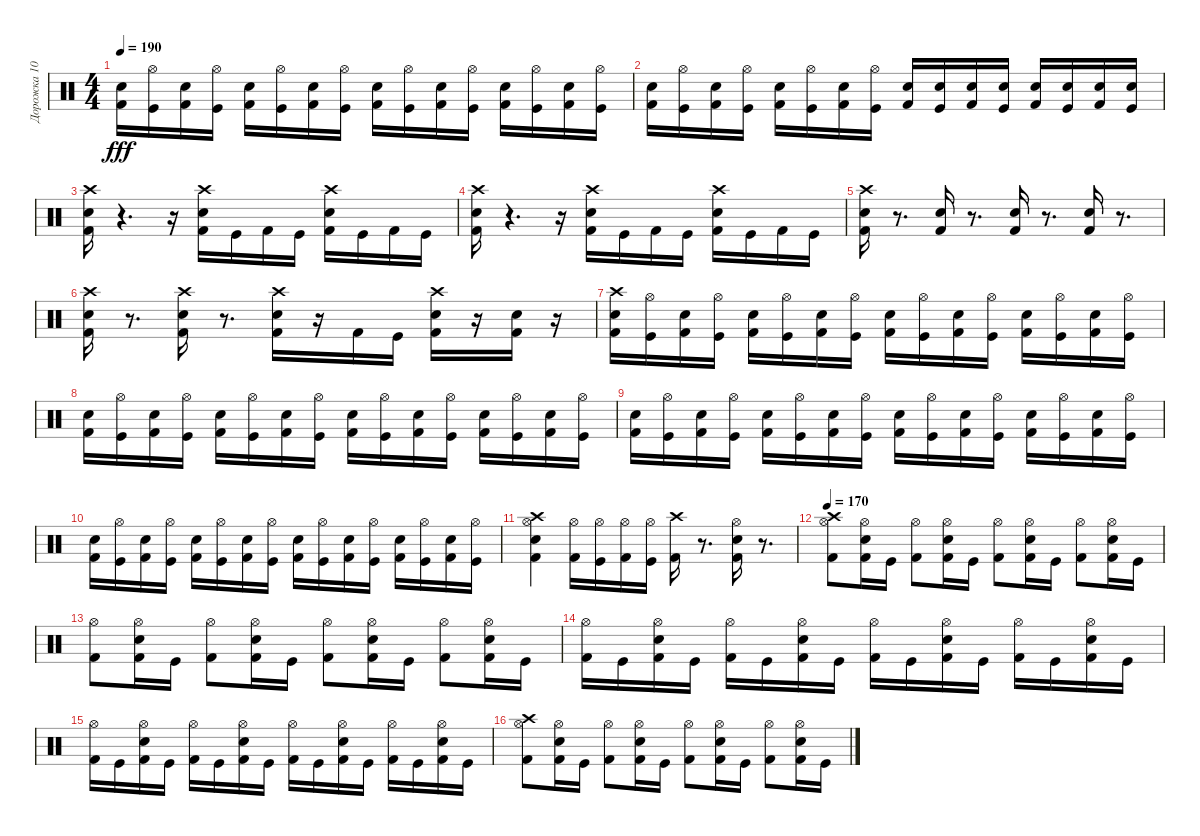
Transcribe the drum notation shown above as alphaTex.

\track ("Дорожка 10" "Дорожка 10") {instrument percussion}
\staff {score}
\articulation defaults
\ts (4 4)
\tempo 190
\clef neutral
\ks c
("Kick (hit) 2" "Electric Snare (hit)").16{dy fff} ("Kick (hit)" "Hi-Hat (open)").16 ("Kick (hit) 2" "Electric Snare (hit)").16 ("Hi-Hat (open)" "Kick (hit)").16 ("Kick (hit) 2" "Electric Snare (hit)").16 ("Hi-Hat (open)" "Kick (hit)").16 ("Kick (hit) 2" "Electric Snare (hit)").16 ("Hi-Hat (open)" "Kick (hit)").16 ("Electric Snare (hit)" "Kick (hit) 2").16 ("Kick (hit)" "Hi-Hat (open)").16 ("Kick (hit) 2" "Electric Snare (hit)").16 ("Hi-Hat (open)" "Kick (hit)").16 ("Kick (hit) 2" "Electric Snare (hit)").16 ("Hi-Hat (open)" "Kick (hit)").16 ("Kick (hit) 2" "Electric Snare (hit)").16 ("Kick (hit)" "Hi-Hat (open)").16 |
("Electric Snare (hit)" "Kick (hit) 2").16 ("Kick (hit)" "Hi-Hat (open)").16 ("Electric Snare (hit)" "Kick (hit) 2").16 ("Kick (hit)" "Hi-Hat (open)").16 ("Kick (hit) 2" "Electric Snare (hit)").16 ("Hi-Hat (open)" "Kick (hit)").16 ("Kick (hit) 2" "Electric Snare (hit)").16 ("Hi-Hat (open)" "Kick (hit)").16 ("Electric Snare (hit)" "Kick (hit) 2").16 ("Kick (hit)" "Electric Snare (hit)").16 ("Kick (hit) 2" "Electric Snare (hit)").16 ("Kick (hit)" "Electric Snare (hit)").16 ("Kick (hit) 2" "Electric Snare (hit)").16 ("Kick (hit)" "Electric Snare (hit)").16 ("Kick (hit) 2" "Electric Snare (hit)").16 ("Kick (hit)" "Electric Snare (hit)").16 |
("Electric Snare (hit)" "Crash high (hit)" "Kick (hit) 2").16 r.4{d} r.16 ("Kick (hit) 2" "Electric Snare (hit)" "Crash high (hit)").16 "Kick (hit)".16 "Kick (hit) 2".16 "Kick (hit)".16 ("Crash high (hit)" "Electric Snare (hit)" "Kick (hit) 2").16 "Kick (hit)".16 "Kick (hit) 2".16 "Kick (hit)".16 |
("Kick (hit) 2" "Electric Snare (hit)" "Crash high (hit)").16 r.4{d} r.16 ("Electric Snare (hit)" "Crash high (hit)" "Kick (hit) 2").16 "Kick (hit)".16 "Kick (hit) 2".16 "Kick (hit)".16 ("Kick (hit) 2" "Crash high (hit)" "Electric Snare (hit)").16 "Kick (hit)".16 "Kick (hit) 2".16 "Kick (hit)".16 |
("Kick (hit) 2" "Crash high (hit)" "Electric Snare (hit)").16 r.8{d} ("Electric Snare (hit)" "Kick (hit) 2").16 r.8{d} ("Kick (hit) 2" "Electric Snare (hit)").16 r.8{d} ("Electric Snare (hit)" "Kick (hit) 2").16 r.8{d} |
("Crash high (hit)" "Kick (hit) 2" "Electric Snare (hit)").16 r.8{d} ("Crash high (hit)" "Kick (hit) 2" "Electric Snare (hit)").16 r.8{d} ("Kick (hit) 2" "Electric Snare (hit)" "Crash high (hit)").16 r.16 "Kick (hit) 2".16 "Kick (hit)".16 ("Electric Snare (hit)" "Kick (hit) 2" "Crash high (hit)").16 r.16 ("Electric Snare (hit)" "Kick (hit) 2").16 r.16 |
("Kick (hit) 2" "Electric Snare (hit)" "Crash high (hit)").16 ("Kick (hit)" "Hi-Hat (open)").16 ("Kick (hit) 2" "Electric Snare (hit)").16 ("Hi-Hat (open)" "Kick (hit)").16 ("Kick (hit) 2" "Electric Snare (hit)").16 ("Hi-Hat (open)" "Kick (hit)").16 ("Electric Snare (hit)" "Kick (hit) 2").16 ("Kick (hit)" "Hi-Hat (open)").16 ("Kick (hit) 2" "Electric Snare (hit)").16 ("Hi-Hat (open)" "Kick (hit)").16 ("Electric Snare (hit)" "Kick (hit) 2").16 ("Hi-Hat (open)" "Kick (hit)").16 ("Kick (hit) 2" "Electric Snare (hit)").16 ("Hi-Hat (open)" "Kick (hit)").16 ("Electric Snare (hit)" "Kick (hit) 2").16 ("Hi-Hat (open)" "Kick (hit)").16 |
("Electric Snare (hit)" "Kick (hit) 2").16 ("Kick (hit)" "Hi-Hat (open)").16 ("Kick (hit) 2" "Electric Snare (hit)").16 ("Kick (hit)" "Hi-Hat (open)").16 ("Electric Snare (hit)" "Kick (hit) 2").16 ("Kick (hit)" "Hi-Hat (open)").16 ("Kick (hit) 2" "Electric Snare (hit)").16 ("Kick (hit)" "Hi-Hat (open)").16 ("Electric Snare (hit)" "Kick (hit) 2").16 ("Kick (hit)" "Hi-Hat (open)").16 ("Electric Snare (hit)" "Kick (hit) 2").16 ("Kick (hit)" "Hi-Hat (open)").16 ("Electric Snare (hit)" "Kick (hit) 2").16 ("Kick (hit)" "Hi-Hat (open)").16 ("Kick (hit) 2" "Electric Snare (hit)").16 ("Hi-Hat (open)" "Kick (hit)").16 |
("Kick (hit) 2" "Electric Snare (hit)").16 ("Kick (hit)" "Hi-Hat (open)").16 ("Kick (hit) 2" "Electric Snare (hit)").16 ("Hi-Hat (open)" "Kick (hit)").16 ("Kick (hit) 2" "Electric Snare (hit)").16 ("Kick (hit)" "Hi-Hat (open)").16 ("Electric Snare (hit)" "Kick (hit) 2").16 ("Kick (hit)" "Hi-Hat (open)").16 ("Electric Snare (hit)" "Kick (hit) 2").16 ("Hi-Hat (open)" "Kick (hit)").16 ("Kick (hit) 2" "Electric Snare (hit)").16 ("Kick (hit)" "Hi-Hat (open)").16 ("Electric Snare (hit)" "Kick (hit) 2").16 ("Kick (hit)" "Hi-Hat (open)").16 ("Kick (hit) 2" "Electric Snare (hit)").16 ("Kick (hit)" "Hi-Hat (open)").16 |
("Electric Snare (hit)" "Kick (hit) 2").16 ("Hi-Hat (open)" "Kick (hit)").16 ("Kick (hit) 2" "Electric Snare (hit)").16 ("Hi-Hat (open)" "Kick (hit)").16 ("Electric Snare (hit)" "Kick (hit) 2").16 ("Kick (hit)" "Hi-Hat (open)").16 ("Electric Snare (hit)" "Kick (hit) 2").16 ("Kick (hit)" "Hi-Hat (open)").16 ("Kick (hit) 2" "Electric Snare (hit)").16 ("Kick (hit)" "Hi-Hat (open)").16 ("Electric Snare (hit)" "Kick (hit) 2").16 ("Hi-Hat (open)" "Kick (hit)").16 ("Kick (hit) 2" "Electric Snare (hit)").16 ("Kick (hit)" "Hi-Hat (open)").16 ("Electric Snare (hit)" "Kick (hit) 2").16 ("Kick (hit)" "Hi-Hat (open)").16 |
("Electric Snare (hit)" "Crash high (hit)" "Hi-Hat (open)" "Kick (hit) 2").4 ("Kick (hit) 2" "Hi-Hat (open)").16 ("Hi-Hat (open)" "Kick (hit)").16 ("Kick (hit) 2" "Hi-Hat (open)").16 ("Kick (hit)" "Hi-Hat (open)").16 ("Crash high (hit)" "Kick (hit) 2").16 r.8{d} ("Electric Snare (hit)" "Kick (hit) 2" "Hi-Hat (open)").16 r.8{d} |
\tempo 170
("Hi-Hat (open)" "Kick (hit) 2" "Crash high (hit)").8 ("Electric Snare (hit)" "Kick (hit) 2" "Hi-Hat (open)").16 "Kick (hit)".16 ("Kick (hit) 2" "Hi-Hat (open)").8 ("Kick (hit) 2" "Electric Snare (hit)" "Hi-Hat (open)").16 "Kick (hit)".16 ("Hi-Hat (open)" "Kick (hit) 2").8 ("Kick (hit) 2" "Electric Snare (hit)" "Hi-Hat (open)").16 "Kick (hit)".16 ("Hi-Hat (open)" "Kick (hit) 2").8 ("Electric Snare (hit)" "Hi-Hat (open)" "Kick (hit) 2").16 "Kick (hit)".16 |
("Hi-Hat (open)" "Kick (hit) 2").8 ("Kick (hit) 2" "Electric Snare (hit)" "Hi-Hat (open)").16 "Kick (hit)".16 ("Hi-Hat (open)" "Kick (hit) 2").8 ("Hi-Hat (open)" "Electric Snare (hit)" "Kick (hit) 2").16 "Kick (hit)".16 ("Hi-Hat (open)" "Kick (hit) 2").8 ("Kick (hit) 2" "Electric Snare (hit)" "Hi-Hat (open)").16 "Kick (hit)".16 ("Hi-Hat (open)" "Kick (hit) 2").8 ("Hi-Hat (open)" "Kick (hit) 2" "Electric Snare (hit)").16 "Kick (hit)".16 |
("Kick (hit) 2" "Hi-Hat (open)").16 "Kick (hit)".16 ("Hi-Hat (open)" "Kick (hit) 2" "Electric Snare (hit)").16 "Kick (hit)".16 ("Kick (hit) 2" "Hi-Hat (open)").16 "Kick (hit)".16 ("Electric Snare (hit)" "Kick (hit) 2" "Hi-Hat (open)").16 "Kick (hit)".16 ("Hi-Hat (open)" "Kick (hit) 2").16 "Kick (hit)".16 ("Hi-Hat (open)" "Kick (hit) 2" "Electric Snare (hit)").16 "Kick (hit)".16 ("Hi-Hat (open)" "Kick (hit) 2").16 "Kick (hit)".16 ("Kick (hit) 2" "Electric Snare (hit)" "Hi-Hat (open)").16 "Kick (hit)".16 |
("Hi-Hat (open)" "Kick (hit) 2").16 "Kick (hit)".16 ("Kick (hit) 2" "Electric Snare (hit)" "Hi-Hat (open)").16 "Kick (hit)".16 ("Hi-Hat (open)" "Kick (hit) 2").16 "Kick (hit)".16 ("Hi-Hat (open)" "Electric Snare (hit)" "Kick (hit) 2").16 "Kick (hit)".16 ("Hi-Hat (open)" "Kick (hit) 2").16 "Kick (hit)".16 ("Hi-Hat (open)" "Electric Snare (hit)" "Kick (hit) 2").16 "Kick (hit)".16 ("Kick (hit) 2" "Hi-Hat (open)").16 "Kick (hit)".16 ("Hi-Hat (open)" "Electric Snare (hit)" "Kick (hit) 2").16 "Kick (hit)".16 |
("Kick (hit) 2" "Hi-Hat (open)" "Crash high (hit)").8 ("Kick (hit) 2" "Electric Snare (hit)" "Hi-Hat (open)").16 "Kick (hit)".16 ("Hi-Hat (open)" "Kick (hit) 2").8 ("Hi-Hat (open)" "Kick (hit) 2" "Electric Snare (hit)").16 "Kick (hit)".16 ("Kick (hit) 2" "Hi-Hat (open)").8 ("Electric Snare (hit)" "Kick (hit) 2" "Hi-Hat (open)").16 "Kick (hit)".16 ("Hi-Hat (open)" "Kick (hit) 2").8 ("Kick (hit) 2" "Hi-Hat (open)" "Electric Snare (hit)").16 "Kick (hit)".16
